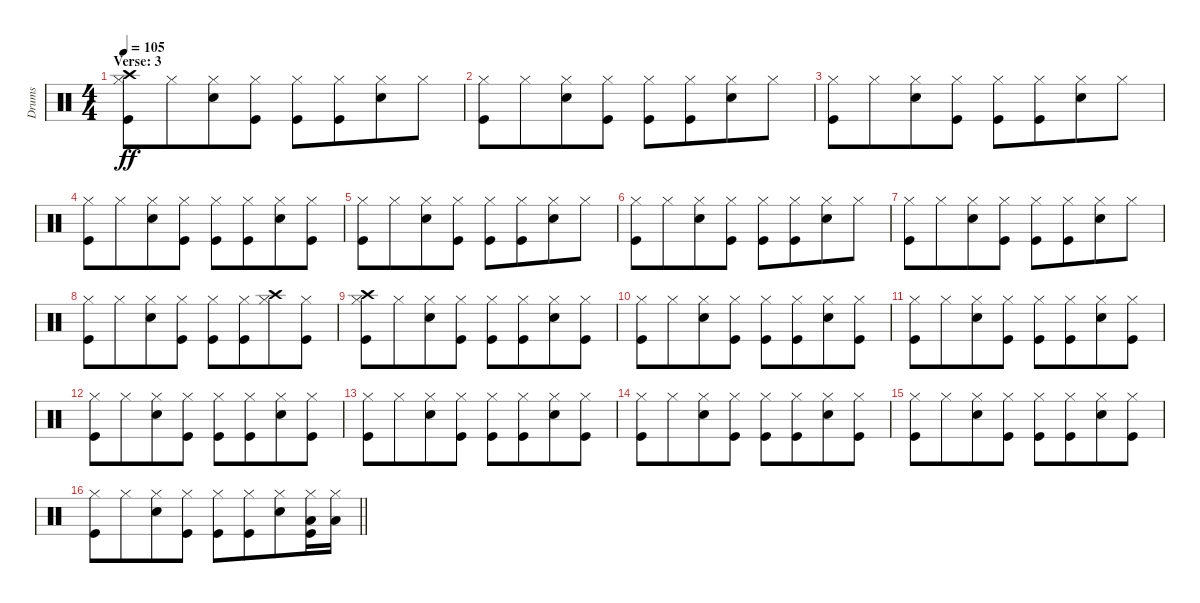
\track ("Drums" "Drums") {instrument percussion}
\staff {score}
\articulation defaults
\ts (4 4)
\section ("" "Verse: 3")
\tempo 105
\clef neutral
\ks c
("Hi-Hat (closed)" "Crash high (hit)" "Kick (hit)").8{dy ff} "Hi-Hat (closed)".8{beam merge} ("Hi-Hat (closed)" "Snare (hit) 2").8 ("Hi-Hat (closed)" "Kick (hit)").8 ("Hi-Hat (closed)" "Kick (hit)").8 ("Hi-Hat (closed)" "Kick (hit)").8{beam merge} ("Hi-Hat (closed)" "Snare (hit) 2").8 "Hi-Hat (closed)".8 |
("Hi-Hat (closed)" "Kick (hit)").8 "Hi-Hat (closed)".8{beam merge} ("Hi-Hat (closed)" "Snare (hit) 2").8 ("Hi-Hat (closed)" "Kick (hit)").8 ("Hi-Hat (closed)" "Kick (hit)").8 ("Hi-Hat (closed)" "Kick (hit)").8{beam merge} ("Hi-Hat (closed)" "Snare (hit) 2").8 "Hi-Hat (closed)".8 |
("Hi-Hat (closed)" "Kick (hit)").8 "Hi-Hat (closed)".8{beam merge} ("Hi-Hat (closed)" "Snare (hit) 2").8 ("Hi-Hat (closed)" "Kick (hit)").8 ("Hi-Hat (closed)" "Kick (hit)").8 ("Hi-Hat (closed)" "Kick (hit)").8{beam merge} ("Hi-Hat (closed)" "Snare (hit) 2").8 "Hi-Hat (closed)".8 |
("Hi-Hat (closed)" "Kick (hit)").8 "Hi-Hat (closed)".8{beam merge} ("Hi-Hat (closed)" "Snare (hit) 2").8 ("Hi-Hat (closed)" "Kick (hit)").8 ("Hi-Hat (closed)" "Kick (hit)").8 ("Hi-Hat (closed)" "Kick (hit)").8{beam merge} ("Hi-Hat (closed)" "Snare (hit) 2").8 ("Hi-Hat (closed)" "Kick (hit)").8 |
("Hi-Hat (closed)" "Kick (hit)").8 "Hi-Hat (closed)".8{beam merge} ("Hi-Hat (closed)" "Snare (hit) 2").8 ("Hi-Hat (closed)" "Kick (hit)").8 ("Hi-Hat (closed)" "Kick (hit)").8 ("Hi-Hat (closed)" "Kick (hit)").8{beam merge} ("Hi-Hat (closed)" "Snare (hit) 2").8 "Hi-Hat (closed)".8 |
("Hi-Hat (closed)" "Kick (hit)").8 "Hi-Hat (closed)".8{beam merge} ("Hi-Hat (closed)" "Snare (hit) 2").8 ("Hi-Hat (closed)" "Kick (hit)").8 ("Hi-Hat (closed)" "Kick (hit)").8 ("Hi-Hat (closed)" "Kick (hit)").8{beam merge} ("Hi-Hat (closed)" "Snare (hit) 2").8 "Hi-Hat (closed)".8 |
("Hi-Hat (closed)" "Kick (hit)").8 "Hi-Hat (closed)".8{beam merge} ("Hi-Hat (closed)" "Snare (hit) 2").8 ("Hi-Hat (closed)" "Kick (hit)").8 ("Hi-Hat (closed)" "Kick (hit)").8 ("Hi-Hat (closed)" "Kick (hit)").8{beam merge} ("Hi-Hat (closed)" "Snare (hit) 2").8 "Hi-Hat (closed)".8 |
("Hi-Hat (closed)" "Kick (hit)").8 "Hi-Hat (closed)".8{beam merge} ("Hi-Hat (closed)" "Snare (hit) 2").8 ("Hi-Hat (closed)" "Kick (hit)").8 ("Hi-Hat (closed)" "Kick (hit)").8 ("Hi-Hat (closed)" "Kick (hit)").8{beam merge} ("Hi-Hat (closed)" "Crash high (hit)").8 ("Hi-Hat (closed)" "Kick (hit)").8 |
("Hi-Hat (closed)" "Crash high (hit)" "Kick (hit)").8 "Hi-Hat (closed)".8{beam merge} ("Hi-Hat (closed)" "Snare (hit) 2").8 ("Hi-Hat (closed)" "Kick (hit)").8 ("Hi-Hat (closed)" "Kick (hit)").8 ("Hi-Hat (closed)" "Kick (hit)").8{beam merge} ("Hi-Hat (closed)" "Snare (hit) 2").8 ("Hi-Hat (closed)" "Kick (hit)").8 |
("Hi-Hat (closed)" "Kick (hit)").8 "Hi-Hat (closed)".8{beam merge} ("Hi-Hat (closed)" "Snare (hit) 2").8 ("Hi-Hat (closed)" "Kick (hit)").8 ("Hi-Hat (closed)" "Kick (hit)").8 ("Hi-Hat (closed)" "Kick (hit)").8{beam merge} ("Hi-Hat (closed)" "Snare (hit) 2").8 ("Hi-Hat (closed)" "Kick (hit)").8 |
("Hi-Hat (closed)" "Kick (hit)").8 "Hi-Hat (closed)".8{beam merge} ("Hi-Hat (closed)" "Snare (hit) 2").8 ("Hi-Hat (closed)" "Kick (hit)").8 ("Hi-Hat (closed)" "Kick (hit)").8 ("Hi-Hat (closed)" "Kick (hit)").8{beam merge} ("Hi-Hat (closed)" "Snare (hit) 2").8 ("Hi-Hat (closed)" "Kick (hit)").8 |
("Hi-Hat (closed)" "Kick (hit)").8 "Hi-Hat (closed)".8{beam merge} ("Hi-Hat (closed)" "Snare (hit) 2").8 ("Hi-Hat (closed)" "Kick (hit)").8 ("Hi-Hat (closed)" "Kick (hit)").8 ("Hi-Hat (closed)" "Kick (hit)").8{beam merge} ("Hi-Hat (closed)" "Snare (hit) 2").8 ("Hi-Hat (closed)" "Kick (hit)").8 |
("Hi-Hat (closed)" "Kick (hit)").8 "Hi-Hat (closed)".8{beam merge} ("Hi-Hat (closed)" "Snare (hit) 2").8 ("Hi-Hat (closed)" "Kick (hit)").8 ("Hi-Hat (closed)" "Kick (hit)").8 ("Hi-Hat (closed)" "Kick (hit)").8{beam merge} ("Hi-Hat (closed)" "Snare (hit) 2").8 ("Hi-Hat (closed)" "Kick (hit)").8 |
("Hi-Hat (closed)" "Kick (hit)").8 "Hi-Hat (closed)".8{beam merge} ("Hi-Hat (closed)" "Snare (hit) 2").8 ("Hi-Hat (closed)" "Kick (hit)").8 ("Hi-Hat (closed)" "Kick (hit)").8 ("Hi-Hat (closed)" "Kick (hit)").8{beam merge} ("Hi-Hat (closed)" "Snare (hit) 2").8 ("Hi-Hat (closed)" "Kick (hit)").8 |
("Hi-Hat (closed)" "Kick (hit)").8 "Hi-Hat (closed)".8{beam merge} ("Hi-Hat (closed)" "Snare (hit) 2").8 ("Hi-Hat (closed)" "Kick (hit)").8 ("Hi-Hat (closed)" "Kick (hit)").8 ("Hi-Hat (closed)" "Kick (hit)").8{beam merge} ("Hi-Hat (closed)" "Snare (hit) 2").8 ("Hi-Hat (closed)" "Kick (hit)").8 |
\barLineRight lightlight
("Hi-Hat (closed)" "Kick (hit)").8 "Hi-Hat (closed)".8{beam merge} ("Hi-Hat (closed)" "Snare (hit) 2").8 ("Hi-Hat (closed)" "Kick (hit)").8 ("Hi-Hat (closed)" "Kick (hit)").8 ("Hi-Hat (closed)" "Kick (hit)").8{beam merge} ("Hi-Hat (closed)" "Snare (hit) 2").8 ("Hi-Hat (closed)" "Low Tom (hit)" "Kick (hit)").16 ("Hi-Hat (closed)" "Low Tom (hit)").16
